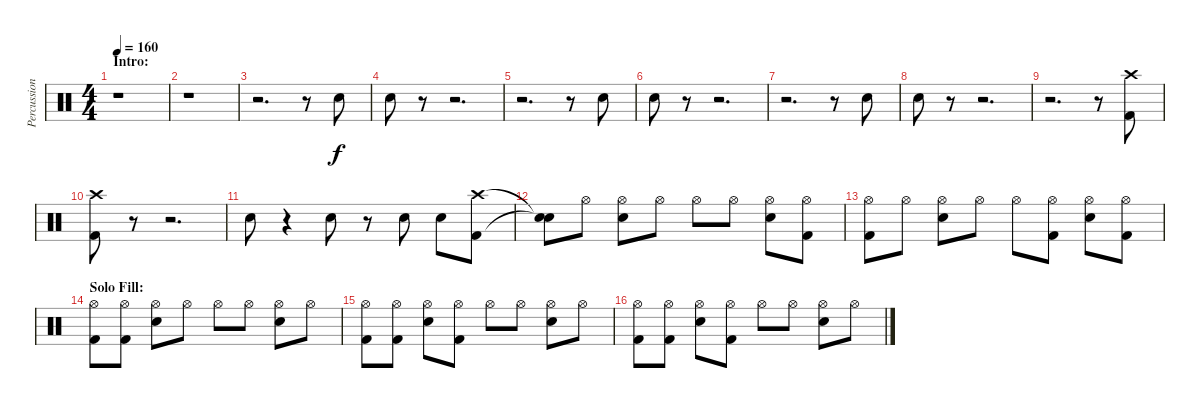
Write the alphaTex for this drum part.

\track ("Percussion" "Percussion") {instrument percussion}
\staff {score}
\articulation defaults
\ts (4 4)
\section ("" "Intro:")
\tempo 160
\clef neutral
\ks c
r.1{dy f} |
r.1 |
r.2{d} r.8 "Snare (hit) 2".8 |
"Snare (hit) 2".8 r.8 r.2{d} |
r.2{d} r.8 "Snare (hit) 2".8 |
"Snare (hit) 2".8 r.8 r.2{d} |
r.2{d} r.8 "Snare (hit) 2".8 |
"Snare (hit) 2".8 r.8 r.2{d} |
r.2{d} r.8 ("Crash high (hit)" "Kick (hit) 2").8 |
("Crash high (hit)" "Kick (hit) 2").8 r.8 r.2{d} |
"Snare (hit) 2".8 r.4 "Snare (hit) 2".8 r.8 "Snare (hit) 2".8 "Snare (hit) 2".8 ("Crash high (hit)" "Kick (hit) 2").8 |
("Snare (hit)"{t} "Snare (hit)"{t}).8 "Hi-Hat (open)".8 ("Hi-Hat (open)" "Snare (hit) 2").8 "Hi-Hat (open)".8 "Hi-Hat (open)".8 "Hi-Hat (open)".8 ("Hi-Hat (open)" "Snare (hit) 2").8 ("Hi-Hat (open)" "Kick (hit) 2").8 |
("Hi-Hat (open)" "Kick (hit) 2").8 "Hi-Hat (open)".8 ("Hi-Hat (open)" "Snare (hit) 2").8 "Hi-Hat (open)".8 "Hi-Hat (open)".8 ("Hi-Hat (open)" "Kick (hit) 2").8 ("Hi-Hat (open)" "Snare (hit) 2").8 ("Hi-Hat (open)" "Kick (hit) 2").8 |
\section ("" "Solo Fill:")
("Hi-Hat (open)" "Kick (hit) 2").8 ("Hi-Hat (open)" "Kick (hit) 2").8 ("Hi-Hat (open)" "Snare (hit) 2").8 "Hi-Hat (open)".8 "Hi-Hat (open)".8 "Hi-Hat (open)".8 ("Hi-Hat (open)" "Snare (hit) 2").8 "Hi-Hat (open)".8 |
("Hi-Hat (open)" "Kick (hit) 2").8 ("Hi-Hat (open)" "Kick (hit) 2").8 ("Hi-Hat (open)" "Snare (hit) 2").8 ("Hi-Hat (open)" "Kick (hit) 2").8 "Hi-Hat (open)".8 "Hi-Hat (open)".8 ("Hi-Hat (open)" "Snare (hit) 2").8 "Hi-Hat (open)".8 |
("Hi-Hat (open)" "Kick (hit) 2").8 ("Hi-Hat (open)" "Kick (hit) 2").8 ("Hi-Hat (open)" "Snare (hit) 2").8 ("Hi-Hat (open)" "Kick (hit) 2").8 "Hi-Hat (open)".8 "Hi-Hat (open)".8 ("Hi-Hat (open)" "Snare (hit) 2").8 "Hi-Hat (open)".8
